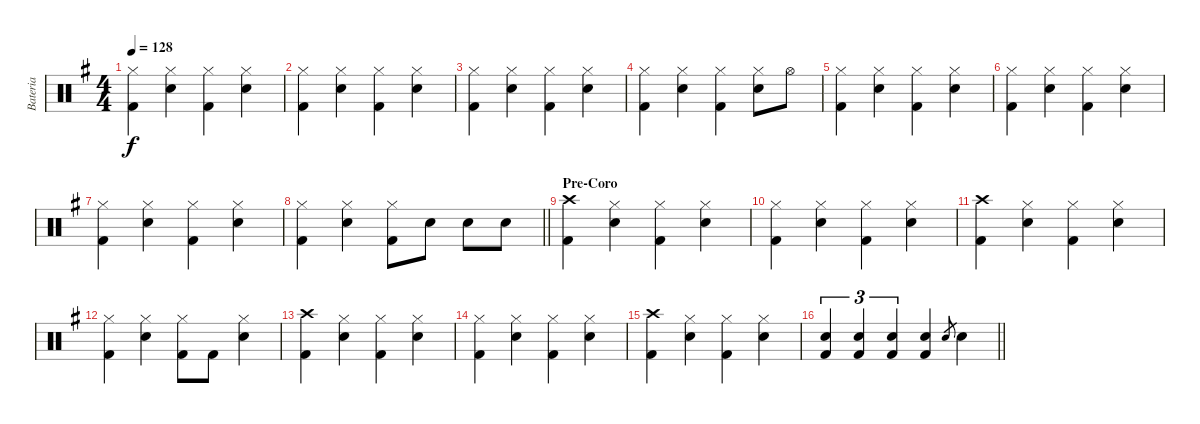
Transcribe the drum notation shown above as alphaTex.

\track ("Bateria" "Bateria") {instrument percussion}
\staff {score}
\articulation defaults
\ts (4 4)
\tempo 128
\clef neutral
\ks g
("Hi-Hat (closed)" "Kick (hit) 2").4{dy f} ("Hi-Hat (closed)" "Snare (hit) 2").4 ("Hi-Hat (closed)" "Kick (hit) 2").4 ("Hi-Hat (closed)" "Snare (hit) 2").4 |
("Hi-Hat (closed)" "Kick (hit) 2").4 ("Hi-Hat (closed)" "Snare (hit) 2").4 ("Hi-Hat (closed)" "Kick (hit) 2").4 ("Hi-Hat (closed)" "Snare (hit) 2").4 |
("Hi-Hat (closed)" "Kick (hit) 2").4 ("Hi-Hat (closed)" "Snare (hit) 2").4 ("Hi-Hat (closed)" "Kick (hit) 2").4 ("Hi-Hat (closed)" "Snare (hit) 2").4 |
("Hi-Hat (closed)" "Kick (hit) 2").4 ("Hi-Hat (closed)" "Snare (hit) 2").4 ("Hi-Hat (closed)" "Kick (hit) 2").4 ("Hi-Hat (closed)" "Snare (hit) 2").8 "Hi-Hat (open)".8 |
("Hi-Hat (closed)" "Kick (hit) 2").4 ("Hi-Hat (closed)" "Snare (hit) 2").4 ("Hi-Hat (closed)" "Kick (hit) 2").4 ("Hi-Hat (closed)" "Snare (hit) 2").4 |
("Hi-Hat (closed)" "Kick (hit) 2").4 ("Hi-Hat (closed)" "Snare (hit) 2").4 ("Hi-Hat (closed)" "Kick (hit) 2").4 ("Hi-Hat (closed)" "Snare (hit) 2").4 |
("Hi-Hat (closed)" "Kick (hit) 2").4 ("Hi-Hat (closed)" "Snare (hit) 2").4 ("Hi-Hat (closed)" "Kick (hit) 2").4 ("Hi-Hat (closed)" "Snare (hit) 2").4 |
\barLineRight lightlight
("Hi-Hat (closed)" "Kick (hit) 2").4 ("Hi-Hat (closed)" "Snare (hit) 2").4 ("Hi-Hat (closed)" "Kick (hit) 2").8 "Snare (hit) 2".8 "Snare (hit) 2".8 "Snare (hit) 2".8 |
\section ("" "Pre-Coro")
("Crash high (hit)" "Kick (hit) 2").4 ("Hi-Hat (closed)" "Snare (hit) 2").4 ("Hi-Hat (closed)" "Kick (hit) 2").4 ("Hi-Hat (closed)" "Snare (hit) 2").4 |
("Hi-Hat (closed)" "Kick (hit) 2").4 ("Hi-Hat (closed)" "Snare (hit) 2").4 ("Hi-Hat (closed)" "Kick (hit) 2").4 ("Hi-Hat (closed)" "Snare (hit) 2").4 |
("Crash high (hit)" "Kick (hit) 2").4 ("Hi-Hat (closed)" "Snare (hit) 2").4 ("Hi-Hat (closed)" "Kick (hit) 2").4 ("Hi-Hat (closed)" "Snare (hit) 2").4 |
("Hi-Hat (closed)" "Kick (hit) 2").4 ("Hi-Hat (closed)" "Snare (hit) 2").4 ("Hi-Hat (closed)" "Kick (hit) 2").8 "Kick (hit) 2".8 ("Hi-Hat (closed)" "Snare (hit) 2").4 |
("Crash high (hit)" "Kick (hit) 2").4 ("Hi-Hat (closed)" "Snare (hit) 2").4 ("Hi-Hat (closed)" "Kick (hit) 2").4 ("Hi-Hat (closed)" "Snare (hit) 2").4 |
("Hi-Hat (closed)" "Kick (hit) 2").4 ("Hi-Hat (closed)" "Snare (hit) 2").4 ("Hi-Hat (closed)" "Kick (hit) 2").4 ("Hi-Hat (closed)" "Snare (hit) 2").4 |
("Crash high (hit)" "Kick (hit) 2").4 ("Hi-Hat (closed)" "Snare (hit) 2").4 ("Hi-Hat (closed)" "Kick (hit) 2").4 ("Hi-Hat (closed)" "Snare (hit) 2").4 |
\barLineRight lightlight
("Snare (hit) 2" "Kick (hit) 2").4{tu (3 2)} ("Snare (hit) 2" "Kick (hit) 2").4{tu (3 2)} ("Snare (hit) 2" "Kick (hit) 2").4{tu (3 2)} ("Snare (hit) 2" "Kick (hit) 2").4 "Snare (hit) 2".8{gr} "Snare (hit) 2".4
